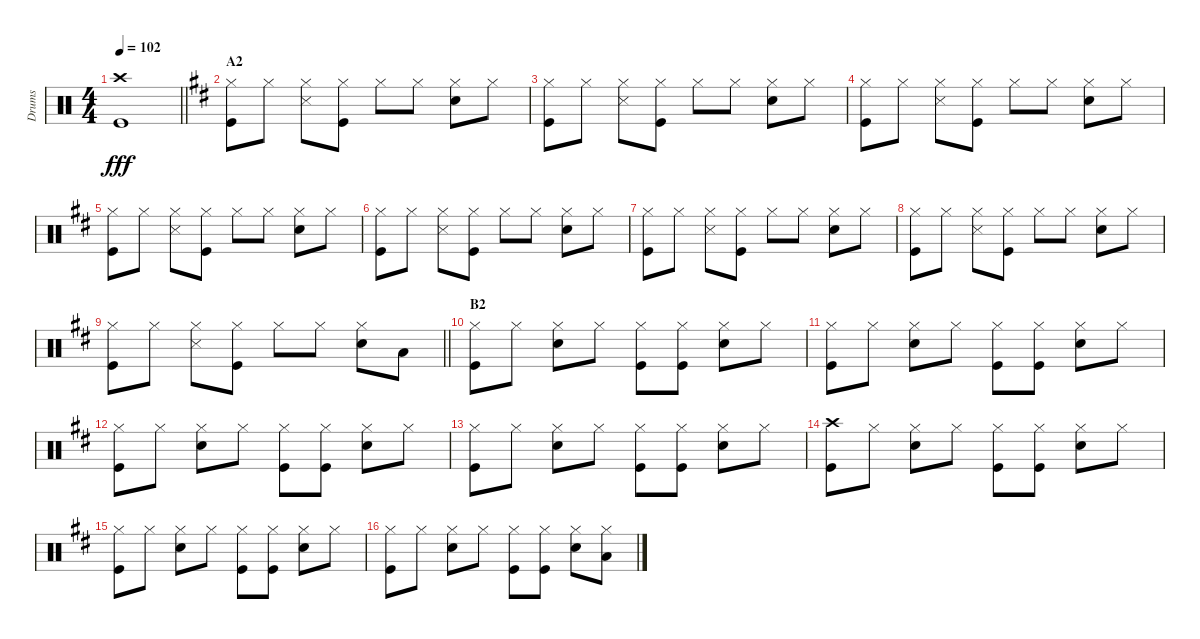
\track ("Drums" "Drums") {instrument percussion}
\staff {score}
\articulation defaults
\ts (4 4)
\tempo 102
\clef neutral
\barLineRight lightlight
\ks c
("Crash high (hit)" "Kick (hit)").1{dy fff} |
\section ("" "A2")
\ks d
("Hi-Hat (closed)" "Kick (hit)").8 "Hi-Hat (closed)".8 ("Hi-Hat (closed)" "Snare (side stick) 3").8 ("Hi-Hat (closed)" "Kick (hit)").8 "Hi-Hat (closed)".8 "Hi-Hat (closed)".8 ("Hi-Hat (closed)" "Snare (hit) 2").8 "Hi-Hat (closed)".8 |
("Hi-Hat (closed)" "Kick (hit)").8 "Hi-Hat (closed)".8 ("Hi-Hat (closed)" "Snare (side stick) 3").8 ("Hi-Hat (closed)" "Kick (hit)").8 "Hi-Hat (closed)".8 "Hi-Hat (closed)".8 ("Hi-Hat (closed)" "Snare (hit) 2").8 "Hi-Hat (closed)".8 |
("Hi-Hat (closed)" "Kick (hit)").8 "Hi-Hat (closed)".8 ("Hi-Hat (closed)" "Snare (side stick) 3").8 ("Hi-Hat (closed)" "Kick (hit)").8 "Hi-Hat (closed)".8 "Hi-Hat (closed)".8 ("Hi-Hat (closed)" "Snare (hit) 2").8 "Hi-Hat (closed)".8 |
("Hi-Hat (closed)" "Kick (hit)").8 "Hi-Hat (closed)".8 ("Hi-Hat (closed)" "Snare (side stick) 3").8 ("Hi-Hat (closed)" "Kick (hit)").8 "Hi-Hat (closed)".8 "Hi-Hat (closed)".8 ("Hi-Hat (closed)" "Snare (hit) 2").8 "Hi-Hat (closed)".8 |
("Hi-Hat (closed)" "Kick (hit)").8 "Hi-Hat (closed)".8 ("Hi-Hat (closed)" "Snare (side stick) 3").8 ("Hi-Hat (closed)" "Kick (hit)").8 "Hi-Hat (closed)".8 "Hi-Hat (closed)".8 ("Hi-Hat (closed)" "Snare (hit) 2").8 "Hi-Hat (closed)".8 |
("Hi-Hat (closed)" "Kick (hit)").8 "Hi-Hat (closed)".8 ("Hi-Hat (closed)" "Snare (side stick) 3").8 ("Hi-Hat (closed)" "Kick (hit)").8 "Hi-Hat (closed)".8 "Hi-Hat (closed)".8 ("Hi-Hat (closed)" "Snare (hit) 2").8 "Hi-Hat (closed)".8 |
("Hi-Hat (closed)" "Kick (hit)").8 "Hi-Hat (closed)".8 ("Hi-Hat (closed)" "Snare (side stick) 3").8 ("Hi-Hat (closed)" "Kick (hit)").8 "Hi-Hat (closed)".8 "Hi-Hat (closed)".8 ("Hi-Hat (closed)" "Snare (hit) 2").8 "Hi-Hat (closed)".8 |
\barLineRight lightlight
("Hi-Hat (closed)" "Kick (hit)").8 "Hi-Hat (closed)".8 ("Hi-Hat (closed)" "Snare (side stick) 3").8 ("Hi-Hat (closed)" "Kick (hit)").8 "Hi-Hat (closed)".8 "Hi-Hat (closed)".8 ("Hi-Hat (closed)" "Snare (hit) 2").8 "Low Tom (hit)".8 |
\section ("" "B2")
("Hi-Hat (closed)" "Kick (hit)").8 "Hi-Hat (closed)".8 ("Hi-Hat (closed)" "Snare (hit) 2").8 "Hi-Hat (closed)".8 ("Hi-Hat (closed)" "Kick (hit)").8 ("Hi-Hat (closed)" "Kick (hit)").8 ("Hi-Hat (closed)" "Snare (hit) 2").8 "Hi-Hat (closed)".8 |
("Hi-Hat (closed)" "Kick (hit)").8 "Hi-Hat (closed)".8 ("Hi-Hat (closed)" "Snare (hit) 2").8 "Hi-Hat (closed)".8 ("Hi-Hat (closed)" "Kick (hit)").8 ("Hi-Hat (closed)" "Kick (hit)").8 ("Hi-Hat (closed)" "Snare (hit) 2").8 "Hi-Hat (closed)".8 |
("Hi-Hat (closed)" "Kick (hit)").8 "Hi-Hat (closed)".8 ("Hi-Hat (closed)" "Snare (hit) 2").8 "Hi-Hat (closed)".8 ("Hi-Hat (closed)" "Kick (hit)").8 ("Hi-Hat (closed)" "Kick (hit)").8 ("Hi-Hat (closed)" "Snare (hit) 2").8 "Hi-Hat (closed)".8 |
("Hi-Hat (closed)" "Kick (hit)").8 "Hi-Hat (closed)".8 ("Hi-Hat (closed)" "Snare (hit) 2").8 "Hi-Hat (closed)".8 ("Hi-Hat (closed)" "Kick (hit)").8 ("Hi-Hat (closed)" "Kick (hit)").8 ("Hi-Hat (closed)" "Snare (hit) 2").8 "Hi-Hat (closed)".8 |
("Crash high (hit)" "Kick (hit)").8 "Hi-Hat (closed)".8 ("Hi-Hat (closed)" "Snare (hit) 2").8 "Hi-Hat (closed)".8 ("Hi-Hat (closed)" "Kick (hit)").8 ("Hi-Hat (closed)" "Kick (hit)").8 ("Hi-Hat (closed)" "Snare (hit) 2").8 "Hi-Hat (closed)".8 |
("Hi-Hat (closed)" "Kick (hit)").8 "Hi-Hat (closed)".8 ("Hi-Hat (closed)" "Snare (hit) 2").8 "Hi-Hat (closed)".8 ("Hi-Hat (closed)" "Kick (hit)").8 ("Hi-Hat (closed)" "Kick (hit)").8 ("Hi-Hat (closed)" "Snare (hit) 2").8 "Hi-Hat (closed)".8 |
("Hi-Hat (closed)" "Kick (hit)").8 "Hi-Hat (closed)".8 ("Hi-Hat (closed)" "Snare (hit) 2").8 "Hi-Hat (closed)".8 ("Hi-Hat (closed)" "Kick (hit)").8 ("Hi-Hat (closed)" "Kick (hit)").8 ("Hi-Hat (closed)" "Snare (hit) 2").8 ("Hi-Hat (closed)" "Low Tom (hit)").8
